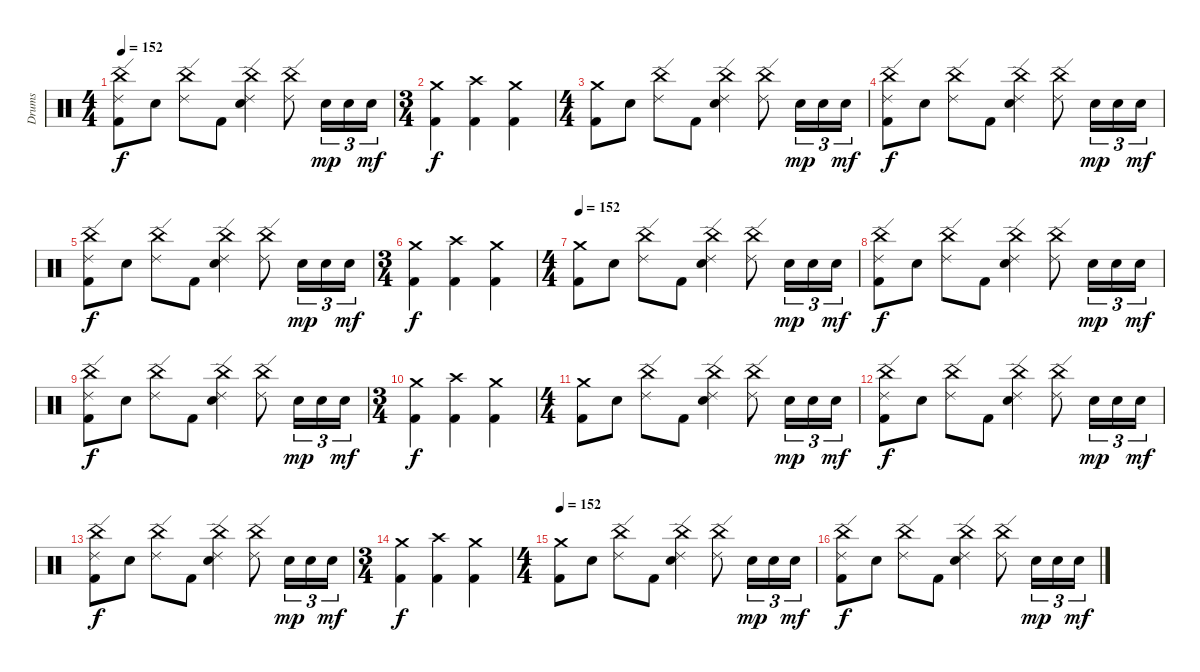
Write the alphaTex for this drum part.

\track ("Drums" "Drums") {instrument percussion}
\staff {score}
\articulation defaults
\ts (4 4)
\tempo 152
\clef neutral
\ks c
("China (hit)" "Ride (edge) 2" "Kick (hit) 2").8{dy f} "Snare (hit) 2".8 ("China (hit)" "Ride (edge) 2").8 "Kick (hit) 2".8 ("China (hit)" "Ride (edge) 2" "Snare (hit) 2").4 ("China (hit)" "Ride (edge) 2").8 "Snare (hit) 2".16{tu (3 2) dy mp} "Snare (hit) 2".16{tu (3 2)} "Snare (hit) 2".16{tu (3 2) dy mf} |
\ts (3 4)
("Crash medium (hit)" "Kick (hit) 2").4{dy f} ("Crash high (hit)" "Kick (hit) 2").4 ("Crash medium (hit)" "Kick (hit) 2").4 |
\ts (4 4)
("Crash medium (hit)" "Kick (hit) 2").8 "Snare (hit) 2".8 ("China (hit)" "Ride (edge) 2").8 "Kick (hit) 2".8 ("China (hit)" "Ride (edge) 2" "Snare (hit) 2").4 ("China (hit)" "Ride (edge) 2").8 "Snare (hit) 2".16{tu (3 2) dy mp} "Snare (hit) 2".16{tu (3 2)} "Snare (hit) 2".16{tu (3 2) dy mf} |
("China (hit)" "Ride (edge) 2" "Kick (hit) 2").8{dy f} "Snare (hit) 2".8 ("China (hit)" "Ride (edge) 2").8 "Kick (hit) 2".8 ("China (hit)" "Ride (edge) 2" "Snare (hit) 2").4 ("China (hit)" "Ride (edge) 2").8 "Snare (hit) 2".16{tu (3 2) dy mp} "Snare (hit) 2".16{tu (3 2)} "Snare (hit) 2".16{tu (3 2) dy mf} |
("China (hit)" "Ride (edge) 2" "Kick (hit) 2").8{dy f} "Snare (hit) 2".8 ("China (hit)" "Ride (edge) 2").8 "Kick (hit) 2".8 ("China (hit)" "Ride (edge) 2" "Snare (hit) 2").4 ("China (hit)" "Ride (edge) 2").8 "Snare (hit) 2".16{tu (3 2) dy mp} "Snare (hit) 2".16{tu (3 2)} "Snare (hit) 2".16{tu (3 2) dy mf} |
\ts (3 4)
("Crash medium (hit)" "Kick (hit) 2").4{dy f} ("Crash high (hit)" "Kick (hit) 2").4 ("Crash medium (hit)" "Kick (hit) 2").4 |
\ts (4 4)
\tempo 152
("Crash medium (hit)" "Kick (hit) 2").8 "Snare (hit) 2".8 ("China (hit)" "Ride (edge) 2").8 "Kick (hit) 2".8 ("China (hit)" "Ride (edge) 2" "Snare (hit) 2").4 ("China (hit)" "Ride (edge) 2").8 "Snare (hit) 2".16{tu (3 2) dy mp} "Snare (hit) 2".16{tu (3 2)} "Snare (hit) 2".16{tu (3 2) dy mf} |
("China (hit)" "Ride (edge) 2" "Kick (hit) 2").8{dy f} "Snare (hit) 2".8 ("China (hit)" "Ride (edge) 2").8 "Kick (hit) 2".8 ("China (hit)" "Ride (edge) 2" "Snare (hit) 2").4 ("China (hit)" "Ride (edge) 2").8 "Snare (hit) 2".16{tu (3 2) dy mp} "Snare (hit) 2".16{tu (3 2)} "Snare (hit) 2".16{tu (3 2) dy mf} |
("China (hit)" "Ride (edge) 2" "Kick (hit) 2").8{dy f} "Snare (hit) 2".8 ("China (hit)" "Ride (edge) 2").8 "Kick (hit) 2".8 ("China (hit)" "Ride (edge) 2" "Snare (hit) 2").4 ("China (hit)" "Ride (edge) 2").8 "Snare (hit) 2".16{tu (3 2) dy mp} "Snare (hit) 2".16{tu (3 2)} "Snare (hit) 2".16{tu (3 2) dy mf} |
\ts (3 4)
("Crash medium (hit)" "Kick (hit) 2").4{dy f} ("Crash high (hit)" "Kick (hit) 2").4 ("Crash medium (hit)" "Kick (hit) 2").4 |
\ts (4 4)
("Crash medium (hit)" "Kick (hit) 2").8 "Snare (hit) 2".8 ("China (hit)" "Ride (edge) 2").8 "Kick (hit) 2".8 ("China (hit)" "Ride (edge) 2" "Snare (hit) 2").4 ("China (hit)" "Ride (edge) 2").8 "Snare (hit) 2".16{tu (3 2) dy mp} "Snare (hit) 2".16{tu (3 2)} "Snare (hit) 2".16{tu (3 2) dy mf} |
("China (hit)" "Ride (edge) 2" "Kick (hit) 2").8{dy f} "Snare (hit) 2".8 ("China (hit)" "Ride (edge) 2").8 "Kick (hit) 2".8 ("China (hit)" "Ride (edge) 2" "Snare (hit) 2").4 ("China (hit)" "Ride (edge) 2").8 "Snare (hit) 2".16{tu (3 2) dy mp} "Snare (hit) 2".16{tu (3 2)} "Snare (hit) 2".16{tu (3 2) dy mf} |
("China (hit)" "Ride (edge) 2" "Kick (hit) 2").8{dy f} "Snare (hit) 2".8 ("China (hit)" "Ride (edge) 2").8 "Kick (hit) 2".8 ("China (hit)" "Ride (edge) 2" "Snare (hit) 2").4 ("China (hit)" "Ride (edge) 2").8 "Snare (hit) 2".16{tu (3 2) dy mp} "Snare (hit) 2".16{tu (3 2)} "Snare (hit) 2".16{tu (3 2) dy mf} |
\ts (3 4)
("Crash medium (hit)" "Kick (hit) 2").4{dy f} ("Crash high (hit)" "Kick (hit) 2").4 ("Crash medium (hit)" "Kick (hit) 2").4 |
\ts (4 4)
\tempo 152
("Crash medium (hit)" "Kick (hit) 2").8 "Snare (hit) 2".8 ("China (hit)" "Ride (edge) 2").8 "Kick (hit) 2".8 ("China (hit)" "Ride (edge) 2" "Snare (hit) 2").4 ("China (hit)" "Ride (edge) 2").8 "Snare (hit) 2".16{tu (3 2) dy mp} "Snare (hit) 2".16{tu (3 2)} "Snare (hit) 2".16{tu (3 2) dy mf} |
("China (hit)" "Ride (edge) 2" "Kick (hit) 2").8{dy f} "Snare (hit) 2".8 ("China (hit)" "Ride (edge) 2").8 "Kick (hit) 2".8 ("China (hit)" "Ride (edge) 2" "Snare (hit) 2").4 ("China (hit)" "Ride (edge) 2").8 "Snare (hit) 2".16{tu (3 2) dy mp} "Snare (hit) 2".16{tu (3 2)} "Snare (hit) 2".16{tu (3 2) dy mf}
